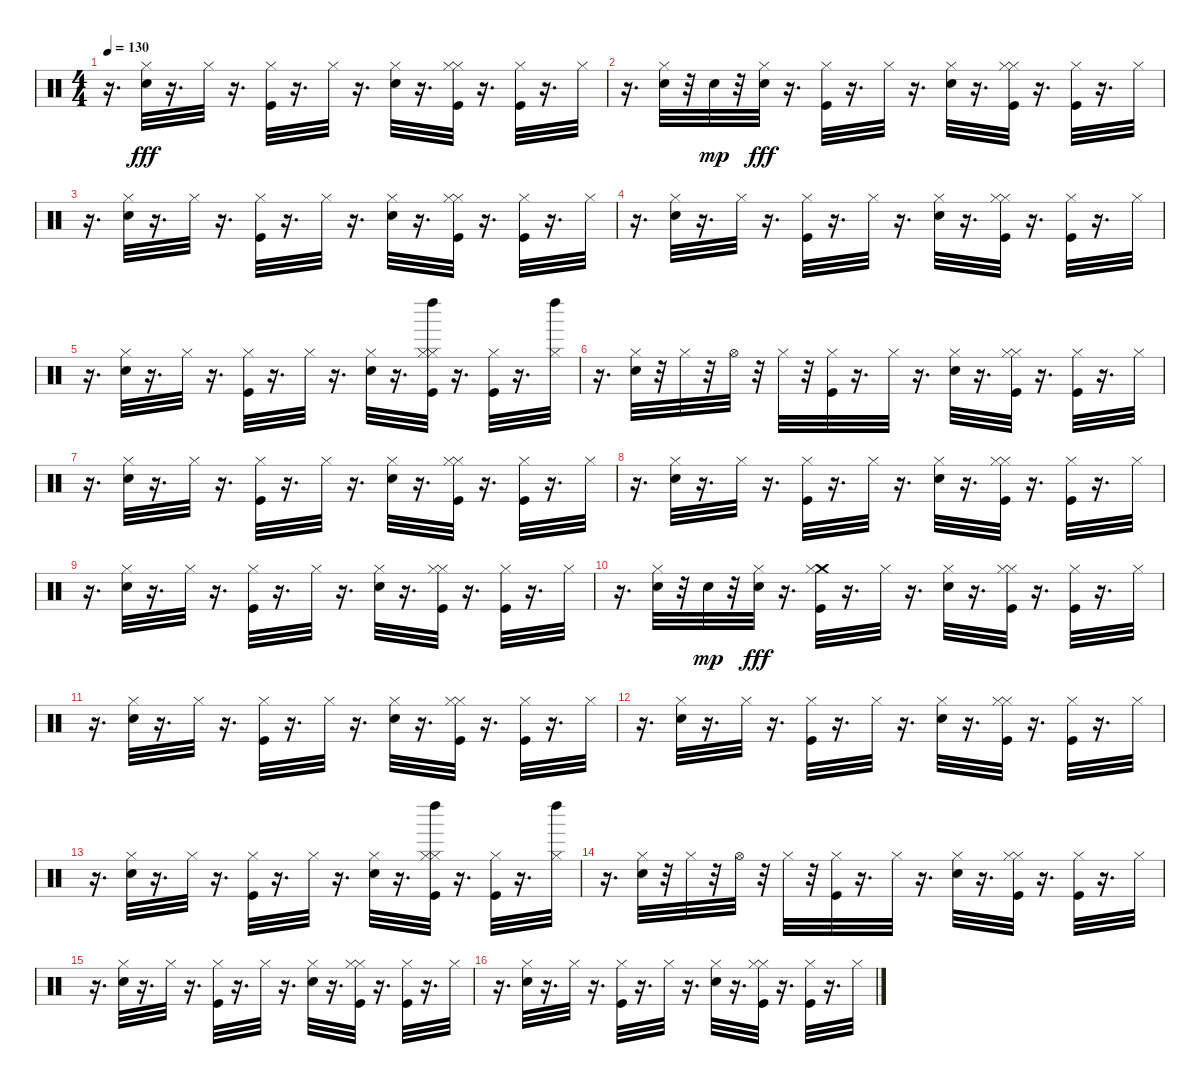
\track "" {instrument percussion}
\staff {score}
\articulation defaults
\ts (4 4)
\tempo 130
\clef neutral
\ks c
r.16{d dy fff} ("Hi-Hat (closed)" "Electric Snare (hit)").32 r.16{d} "Hi-Hat (closed)".32 r.16{d} ("Hi-Hat (closed)" "Kick (hit)").32 r.16{d} "Hi-Hat (closed)".32 r.16{d} ("Hi-Hat (closed)" "Electric Snare (hit)").32 r.16{d} ("Hi-Hat (closed)" "Hi-Hat (closed)" "Kick (hit)").32 r.16{d} ("Hi-Hat (closed)" "Kick (hit)").32 r.16{d} "Hi-Hat (closed)".32 |
r.16{d} ("Hi-Hat (closed)" "Electric Snare (hit)").32 r.32 "Snare (hit) 2".32{dy mp} r.32 ("Snare (hit) 2" "Hi-Hat (closed)").32{dy fff} r.16{d} ("Hi-Hat (closed)" "Kick (hit)").32 r.16{d} "Hi-Hat (closed)".32 r.16{d} ("Hi-Hat (closed)" "Electric Snare (hit)").32 r.16{d} ("Hi-Hat (closed)" "Hi-Hat (closed)" "Kick (hit)").32 r.16{d} ("Hi-Hat (closed)" "Kick (hit)").32 r.16{d} "Hi-Hat (closed)".32 |
r.16{d} ("Hi-Hat (closed)" "Electric Snare (hit)").32 r.16{d} "Hi-Hat (closed)".32 r.16{d} ("Hi-Hat (closed)" "Kick (hit)").32 r.16{d} "Hi-Hat (closed)".32 r.16{d} ("Hi-Hat (closed)" "Electric Snare (hit)").32 r.16{d} ("Hi-Hat (closed)" "Hi-Hat (closed)" "Kick (hit)").32 r.16{d} ("Hi-Hat (closed)" "Kick (hit)").32 r.16{d} "Hi-Hat (closed)".32 |
r.16{d} ("Hi-Hat (closed)" "Electric Snare (hit)").32 r.16{d} "Hi-Hat (closed)".32 r.16{d} ("Hi-Hat (closed)" "Kick (hit)").32 r.16{d} "Hi-Hat (closed)".32 r.16{d} ("Hi-Hat (closed)" "Electric Snare (hit)").32 r.16{d} ("Hi-Hat (closed)" "Hi-Hat (closed)" "Kick (hit)").32 r.16{d} ("Hi-Hat (closed)" "Kick (hit)").32 r.16{d} "Hi-Hat (closed)".32 |
r.16{d} ("Hi-Hat (closed)" "Electric Snare (hit)").32 r.16{d} "Hi-Hat (closed)".32 r.16{d} ("Hi-Hat (closed)" "Kick (hit)").32 r.16{d} "Hi-Hat (closed)".32 r.16{d} ("Hi-Hat (closed)" "Electric Snare (hit)").32 r.16{d} ("Hi-Hat (closed)" "Left Maraca (hit)" "Hi-Hat (closed)" "Kick (hit)").32 r.16{d} ("Hi-Hat (closed)" "Kick (hit)").32 r.16{d} ("Left Maraca (hit)" "Hi-Hat (closed)").32 |
r.16{d} ("Hi-Hat (closed)" "Electric Snare (hit)").32 r.32 "Hi-Hat (closed)".32 r.32 "Hi-Hat (open)".32 r.32 "Hi-Hat (closed)".32 r.32 ("Hi-Hat (closed)" "Kick (hit)").32 r.16{d} "Hi-Hat (closed)".32 r.16{d} ("Hi-Hat (closed)" "Electric Snare (hit)").32 r.16{d} ("Hi-Hat (closed)" "Hi-Hat (closed)" "Kick (hit)").32 r.16{d} ("Hi-Hat (closed)" "Kick (hit)").32 r.16{d} "Hi-Hat (closed)".32 |
r.16{d} ("Hi-Hat (closed)" "Electric Snare (hit)").32 r.16{d} "Hi-Hat (closed)".32 r.16{d} ("Hi-Hat (closed)" "Kick (hit)").32 r.16{d} "Hi-Hat (closed)".32 r.16{d} ("Hi-Hat (closed)" "Electric Snare (hit)").32 r.16{d} ("Hi-Hat (closed)" "Hi-Hat (closed)" "Kick (hit)").32 r.16{d} ("Hi-Hat (closed)" "Kick (hit)").32 r.16{d} "Hi-Hat (closed)".32 |
r.16{d} ("Hi-Hat (closed)" "Electric Snare (hit)").32 r.16{d} "Hi-Hat (closed)".32 r.16{d} ("Hi-Hat (closed)" "Kick (hit)").32 r.16{d} "Hi-Hat (closed)".32 r.16{d} ("Hi-Hat (closed)" "Electric Snare (hit)").32 r.16{d} ("Hi-Hat (closed)" "Hi-Hat (closed)" "Kick (hit)").32 r.16{d} ("Hi-Hat (closed)" "Kick (hit)").32 r.16{d} "Hi-Hat (closed)".32 |
r.16{d} ("Hi-Hat (closed)" "Electric Snare (hit)").32 r.16{d} "Hi-Hat (closed)".32 r.16{d} ("Hi-Hat (closed)" "Kick (hit)").32 r.16{d} "Hi-Hat (closed)".32 r.16{d} ("Hi-Hat (closed)" "Electric Snare (hit)").32 r.16{d} ("Hi-Hat (closed)" "Hi-Hat (closed)" "Kick (hit)").32 r.16{d} ("Hi-Hat (closed)" "Kick (hit)").32 r.16{d} "Hi-Hat (closed)".32 |
r.16{d} ("Hi-Hat (closed)" "Electric Snare (hit)").32 r.32 "Snare (hit) 2".32{dy mp} r.32 ("Snare (hit) 2" "Hi-Hat (closed)").32{dy fff} r.16{d} ("Crash medium (hit)" "Hi-Hat (closed)" "Kick (hit)").32 r.16{d} "Hi-Hat (closed)".32 r.16{d} ("Hi-Hat (closed)" "Electric Snare (hit)").32 r.16{d} ("Hi-Hat (closed)" "Hi-Hat (closed)" "Kick (hit)").32 r.16{d} ("Hi-Hat (closed)" "Kick (hit)").32 r.16{d} "Hi-Hat (closed)".32 |
r.16{d} ("Hi-Hat (closed)" "Electric Snare (hit)").32 r.16{d} "Hi-Hat (closed)".32 r.16{d} ("Hi-Hat (closed)" "Kick (hit)").32 r.16{d} "Hi-Hat (closed)".32 r.16{d} ("Hi-Hat (closed)" "Electric Snare (hit)").32 r.16{d} ("Hi-Hat (closed)" "Hi-Hat (closed)" "Kick (hit)").32 r.16{d} ("Hi-Hat (closed)" "Kick (hit)").32 r.16{d} "Hi-Hat (closed)".32 |
r.16{d} ("Hi-Hat (closed)" "Electric Snare (hit)").32 r.16{d} "Hi-Hat (closed)".32 r.16{d} ("Hi-Hat (closed)" "Kick (hit)").32 r.16{d} "Hi-Hat (closed)".32 r.16{d} ("Hi-Hat (closed)" "Electric Snare (hit)").32 r.16{d} ("Hi-Hat (closed)" "Hi-Hat (closed)" "Kick (hit)").32 r.16{d} ("Hi-Hat (closed)" "Kick (hit)").32 r.16{d} "Hi-Hat (closed)".32 |
r.16{d} ("Hi-Hat (closed)" "Electric Snare (hit)").32 r.16{d} "Hi-Hat (closed)".32 r.16{d} ("Hi-Hat (closed)" "Kick (hit)").32 r.16{d} "Hi-Hat (closed)".32 r.16{d} ("Hi-Hat (closed)" "Electric Snare (hit)").32 r.16{d} ("Hi-Hat (closed)" "Left Maraca (hit)" "Hi-Hat (closed)" "Kick (hit)").32 r.16{d} ("Hi-Hat (closed)" "Kick (hit)").32 r.16{d} ("Left Maraca (hit)" "Hi-Hat (closed)").32 |
r.16{d} ("Hi-Hat (closed)" "Electric Snare (hit)").32 r.32 "Hi-Hat (closed)".32 r.32 "Hi-Hat (open)".32 r.32 "Hi-Hat (closed)".32 r.32 ("Hi-Hat (closed)" "Kick (hit)").32 r.16{d} "Hi-Hat (closed)".32 r.16{d} ("Hi-Hat (closed)" "Electric Snare (hit)").32 r.16{d} ("Hi-Hat (closed)" "Hi-Hat (closed)" "Kick (hit)").32 r.16{d} ("Hi-Hat (closed)" "Kick (hit)").32 r.16{d} "Hi-Hat (closed)".32 |
r.16{d} ("Hi-Hat (closed)" "Electric Snare (hit)").32 r.16{d} "Hi-Hat (closed)".32 r.16{d} ("Hi-Hat (closed)" "Kick (hit)").32 r.16{d} "Hi-Hat (closed)".32 r.16{d} ("Hi-Hat (closed)" "Electric Snare (hit)").32 r.16{d} ("Hi-Hat (closed)" "Hi-Hat (closed)" "Kick (hit)").32 r.16{d} ("Hi-Hat (closed)" "Kick (hit)").32 r.16{d} "Hi-Hat (closed)".32 |
r.16{d} ("Hi-Hat (closed)" "Electric Snare (hit)").32 r.16{d} "Hi-Hat (closed)".32 r.16{d} ("Hi-Hat (closed)" "Kick (hit)").32 r.16{d} "Hi-Hat (closed)".32 r.16{d} ("Hi-Hat (closed)" "Electric Snare (hit)").32 r.16{d} ("Hi-Hat (closed)" "Hi-Hat (closed)" "Kick (hit)").32 r.16{d} ("Hi-Hat (closed)" "Kick (hit)").32 r.16{d} "Hi-Hat (closed)".32
